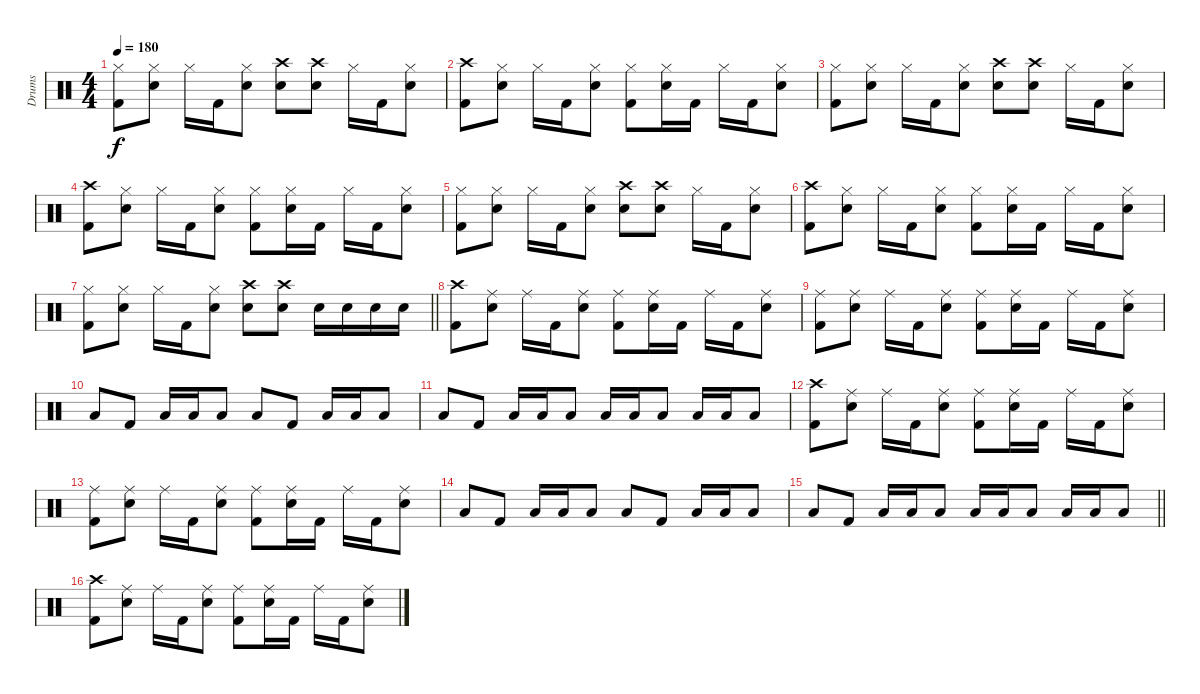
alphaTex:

\track ("Drums" "Drums") {instrument percussion}
\staff {score}
\articulation defaults
\ts (4 4)
\tempo 180
\clef neutral
\ks c
("Hi-Hat (closed)" "Kick (hit) 2").8{dy f} ("Hi-Hat (closed)" "Snare (hit) 2").8 "Hi-Hat (closed)".16 "Kick (hit) 2".16 ("Hi-Hat (closed)" "Snare (hit) 2").8 ("Crash high (hit)" "Snare (hit) 2").8 ("Crash high (hit)" "Snare (hit) 2").8 "Hi-Hat (closed)".16 "Kick (hit) 2".16 ("Hi-Hat (closed)" "Snare (hit) 2").8 |
("Crash high (hit)" "Kick (hit) 2").8 ("Hi-Hat (closed)" "Snare (hit) 2").8 "Hi-Hat (closed)".16 "Kick (hit) 2".16 ("Hi-Hat (closed)" "Snare (hit) 2").8 ("Hi-Hat (closed)" "Kick (hit) 2").8 ("Hi-Hat (closed)" "Snare (hit) 2").16 "Kick (hit) 2".16 "Hi-Hat (closed)".16 "Kick (hit) 2".16 ("Hi-Hat (closed)" "Snare (hit) 2").8 |
("Hi-Hat (closed)" "Kick (hit) 2").8 ("Hi-Hat (closed)" "Snare (hit) 2").8 "Hi-Hat (closed)".16 "Kick (hit) 2".16 ("Hi-Hat (closed)" "Snare (hit) 2").8 ("Crash high (hit)" "Snare (hit) 2").8 ("Crash high (hit)" "Snare (hit) 2").8 "Hi-Hat (closed)".16 "Kick (hit) 2".16 ("Hi-Hat (closed)" "Snare (hit) 2").8 |
("Crash high (hit)" "Kick (hit) 2").8 ("Hi-Hat (closed)" "Snare (hit) 2").8 "Hi-Hat (closed)".16 "Kick (hit) 2".16 ("Hi-Hat (closed)" "Snare (hit) 2").8 ("Hi-Hat (closed)" "Kick (hit) 2").8 ("Hi-Hat (closed)" "Snare (hit) 2").16 "Kick (hit) 2".16 "Hi-Hat (closed)".16 "Kick (hit) 2".16 ("Hi-Hat (closed)" "Snare (hit) 2").8 |
("Hi-Hat (closed)" "Kick (hit) 2").8 ("Hi-Hat (closed)" "Snare (hit) 2").8 "Hi-Hat (closed)".16 "Kick (hit) 2".16 ("Hi-Hat (closed)" "Snare (hit) 2").8 ("Crash high (hit)" "Snare (hit) 2").8 ("Crash high (hit)" "Snare (hit) 2").8 "Hi-Hat (closed)".16 "Kick (hit) 2".16 ("Hi-Hat (closed)" "Snare (hit) 2").8 |
("Crash high (hit)" "Kick (hit) 2").8 ("Hi-Hat (closed)" "Snare (hit) 2").8 "Hi-Hat (closed)".16 "Kick (hit) 2".16 ("Hi-Hat (closed)" "Snare (hit) 2").8 ("Hi-Hat (closed)" "Kick (hit) 2").8 ("Hi-Hat (closed)" "Snare (hit) 2").16 "Kick (hit) 2".16 "Hi-Hat (closed)".16 "Kick (hit) 2".16 ("Hi-Hat (closed)" "Snare (hit) 2").8 |
\barLineRight lightlight
("Hi-Hat (closed)" "Kick (hit) 2").8 ("Hi-Hat (closed)" "Snare (hit) 2").8 "Hi-Hat (closed)".16 "Kick (hit) 2".16 ("Hi-Hat (closed)" "Snare (hit) 2").8 ("Crash high (hit)" "Snare (hit) 2").8 ("Crash high (hit)" "Snare (hit) 2").8 "Snare (hit) 2".16 "Snare (hit) 2".16 "Snare (hit) 2".16 "Snare (hit) 2".16 |
("Crash high (hit)" "Kick (hit) 2").8 ("Ride (middle)" "Snare (hit) 2").8 "Ride (middle)".16 "Kick (hit) 2".16 ("Ride (middle)" "Snare (hit) 2").8 ("Ride (middle)" "Kick (hit) 2").8 ("Ride (middle)" "Snare (hit) 2").16 "Kick (hit) 2".16 "Ride (middle)".16 "Kick (hit) 2".16 ("Ride (middle)" "Snare (hit) 2").8 |
("Ride (middle)" "Kick (hit) 2").8 ("Ride (middle)" "Snare (hit) 2").8 "Ride (middle)".16 "Kick (hit) 2".16 ("Ride (middle)" "Snare (hit) 2").8 ("Ride (middle)" "Kick (hit) 2").8 ("Ride (middle)" "Snare (hit) 2").16 "Kick (hit) 2".16 "Ride (middle)".16 "Kick (hit) 2".16 ("Ride (middle)" "Snare (hit) 2").8 |
"Low Floor Tom (hit)".8 "Kick (hit) 2".8 "Low Floor Tom (hit)".16 "Low Floor Tom (hit)".16 "Low Floor Tom (hit)".8 "Low Floor Tom (hit)".8 "Kick (hit) 2".8 "Low Floor Tom (hit)".16 "Low Floor Tom (hit)".16 "Low Floor Tom (hit)".8 |
"Low Floor Tom (hit)".8 "Kick (hit) 2".8 "Low Floor Tom (hit)".16 "Low Floor Tom (hit)".16 "Low Floor Tom (hit)".8 "Low Floor Tom (hit)".16 "Low Floor Tom (hit)".16 "Low Floor Tom (hit)".8 "Low Floor Tom (hit)".16 "Low Floor Tom (hit)".16 "Low Floor Tom (hit)".8 |
("Crash high (hit)" "Kick (hit) 2").8 ("Ride (middle)" "Snare (hit) 2").8 "Ride (middle)".16 "Kick (hit) 2".16 ("Ride (middle)" "Snare (hit) 2").8 ("Ride (middle)" "Kick (hit) 2").8 ("Ride (middle)" "Snare (hit) 2").16 "Kick (hit) 2".16 "Ride (middle)".16 "Kick (hit) 2".16 ("Ride (middle)" "Snare (hit) 2").8 |
("Ride (middle)" "Kick (hit) 2").8 ("Ride (middle)" "Snare (hit) 2").8 "Ride (middle)".16 "Kick (hit) 2".16 ("Ride (middle)" "Snare (hit) 2").8 ("Ride (middle)" "Kick (hit) 2").8 ("Ride (middle)" "Snare (hit) 2").16 "Kick (hit) 2".16 "Ride (middle)".16 "Kick (hit) 2".16 ("Ride (middle)" "Snare (hit) 2").8 |
"Low Floor Tom (hit)".8 "Kick (hit) 2".8 "Low Floor Tom (hit)".16 "Low Floor Tom (hit)".16 "Low Floor Tom (hit)".8 "Low Floor Tom (hit)".8 "Kick (hit) 2".8 "Low Floor Tom (hit)".16 "Low Floor Tom (hit)".16 "Low Floor Tom (hit)".8 |
\barLineRight lightlight "Low Floor Tom (hit)".8 "Kick (hit) 2".8 "Low Floor Tom (hit)".16 "Low Floor Tom (hit)".16 "Low Floor Tom (hit)".8 "Low Floor Tom (hit)".16 "Low Floor Tom (hit)".16 "Low Floor Tom (hit)".8 "Low Floor Tom (hit)".16 "Low Floor Tom (hit)".16 "Low Floor Tom (hit)".8
|
("Crash high (hit)" "Kick (hit) 2").8 ("Ride (middle)" "Snare (hit) 2").8 "Ride (middle)".16 "Kick (hit) 2".16 ("Ride (middle)" "Snare (hit) 2").8 ("Ride (middle)" "Kick (hit) 2").8 ("Ride (middle)" "Snare (hit) 2").16 "Kick (hit) 2".16 "Ride (middle)".16 "Kick (hit) 2".16 ("Ride (middle)" "Snare (hit) 2").8
